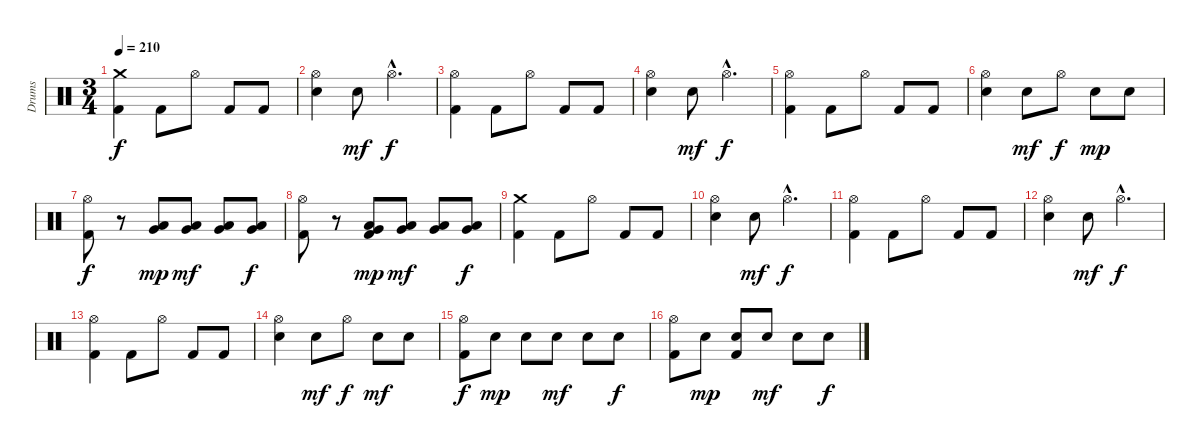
\track ("Drums" "Drums") {instrument percussion}
\staff {score}
\articulation defaults
\ts (3 4)
\tempo 210
\clef neutral
\ks c
("Crash medium (hit)" "Kick (hit) 2").4{dy f} "Kick (hit) 2".8 "Hi-Hat (open)".8 "Kick (hit) 2".8 "Kick (hit) 2".8 |
("Hi-Hat (open)" "Electric Snare (hit)").4 "Electric Snare (hit)".8{dy mf} "Hi-Hat (open)"{hac}.4{d dy f} |
("Hi-Hat (open)" "Kick (hit) 2").4 "Kick (hit) 2".8 "Hi-Hat (open)".8 "Kick (hit) 2".8 "Kick (hit) 2".8 |
("Hi-Hat (open)" "Electric Snare (hit)").4 "Electric Snare (hit)".8{dy mf} "Hi-Hat (open)"{hac}.4{d dy f} |
("Hi-Hat (open)" "Kick (hit) 2").4 "Kick (hit) 2".8 "Hi-Hat (open)".8 "Kick (hit) 2".8 "Kick (hit) 2".8 |
("Hi-Hat (open)" "Electric Snare (hit)").4 "Electric Snare (hit)".8{dy mf} "Hi-Hat (open)".8{dy f} "Electric Snare (hit)".8{dy mp} "Electric Snare (hit)".8 |
("Hi-Hat (open)" "Kick (hit) 2").8{dy f} r.8 ("Low Tom (hit)" "Very Low Tom (hit)").8{dy mp} ("Low Tom (hit)" "Very Low Tom (hit)").8{dy mf} ("Low Tom (hit)" "Very Low Tom (hit)").8 ("Low Tom (hit)" "Very Low Tom (hit)").8{dy f} |
("Hi-Hat (open)" "Kick (hit) 2").8 r.8 ("Low Tom (hit)" "Very Low Tom (hit)" "Kick (hit) 2").8{dy mp} ("Low Tom (hit)" "Very Low Tom (hit)").8{dy mf} ("Low Tom (hit)" "Very Low Tom (hit)").8 ("Low Tom (hit)" "Very Low Tom (hit)").8{dy f} |
("Crash medium (hit)" "Kick (hit) 2").4 "Kick (hit) 2".8 "Hi-Hat (open)".8 "Kick (hit) 2".8 "Kick (hit) 2".8 |
("Hi-Hat (open)" "Electric Snare (hit)").4 "Electric Snare (hit)".8{dy mf} "Hi-Hat (open)"{hac}.4{d dy f} |
("Hi-Hat (open)" "Kick (hit) 2").4 "Kick (hit) 2".8 "Hi-Hat (open)".8 "Kick (hit) 2".8 "Kick (hit) 2".8 |
("Hi-Hat (open)" "Electric Snare (hit)").4 "Electric Snare (hit)".8{dy mf} "Hi-Hat (open)"{hac}.4{d dy f} |
("Hi-Hat (open)" "Kick (hit) 2").4 "Kick (hit) 2".8 "Hi-Hat (open)".8 "Kick (hit) 2".8 "Kick (hit) 2".8 |
("Hi-Hat (open)" "Electric Snare (hit)").4 "Electric Snare (hit)".8{dy mf} "Hi-Hat (open)".8{dy f} "Electric Snare (hit)".8{dy mf} "Electric Snare (hit)".8 |
("Hi-Hat (open)" "Kick (hit) 2").8{dy f} "Electric Snare (hit)".8{dy mp} "Electric Snare (hit)".8 "Electric Snare (hit)".8{dy mf} "Electric Snare (hit)".8 "Electric Snare (hit)".8{dy f} |
("Hi-Hat (open)" "Kick (hit) 2").8 "Electric Snare (hit)".8{dy mp} ("Electric Snare (hit)" "Kick (hit) 2").8 "Electric Snare (hit)".8{dy mf} "Electric Snare (hit)".8 "Electric Snare (hit)".8{dy f}
